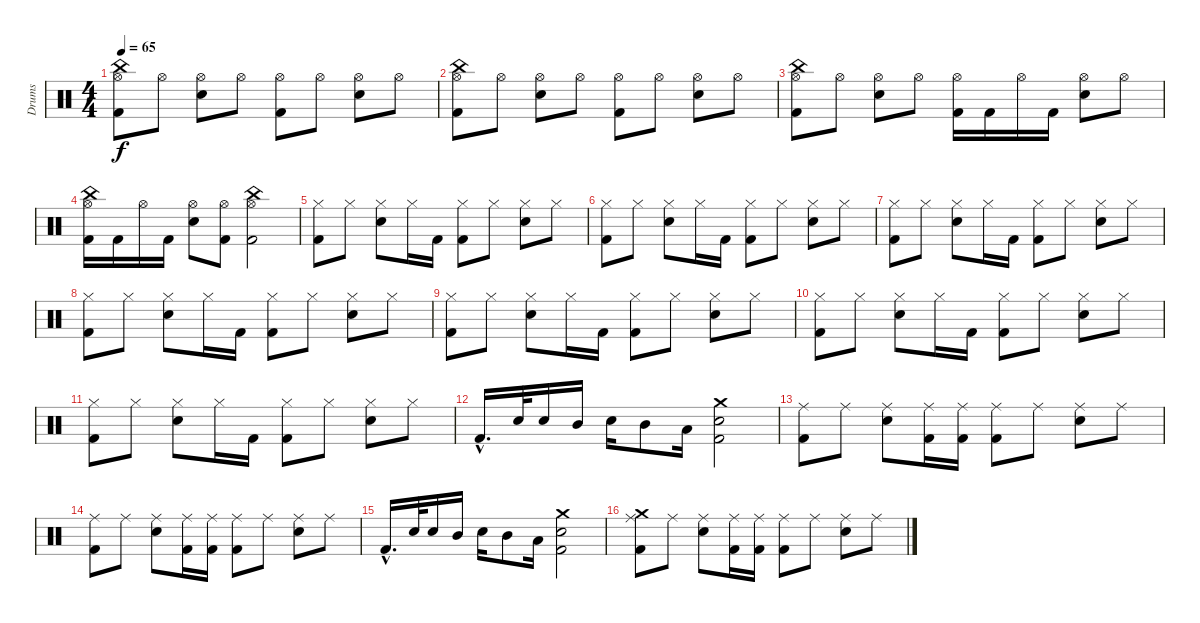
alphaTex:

\track ("Drums" "Drums") {instrument percussion}
\staff {score}
\articulation defaults
\ts (4 4)
\tempo 65
\clef neutral
\ks c
("Hi-Hat (open)" "China (hit)" "Kick (hit) 2").8{dy f} "Hi-Hat (open)".8 ("Hi-Hat (open)" "Snare (hit) 2").8 "Hi-Hat (open)".8 ("Hi-Hat (open)" "Kick (hit) 2").8 "Hi-Hat (open)".8 ("Hi-Hat (open)" "Snare (hit) 2").8 "Hi-Hat (open)".8 |
("Hi-Hat (open)" "China (hit)" "Kick (hit) 2").8 "Hi-Hat (open)".8 ("Hi-Hat (open)" "Snare (hit) 2").8 "Hi-Hat (open)".8 ("Hi-Hat (open)" "Kick (hit) 2").8 "Hi-Hat (open)".8 ("Hi-Hat (open)" "Snare (hit) 2").8 "Hi-Hat (open)".8 |
("Hi-Hat (open)" "China (hit)" "Kick (hit) 2").8 "Hi-Hat (open)".8 ("Hi-Hat (open)" "Snare (hit) 2").8 "Hi-Hat (open)".8 ("Hi-Hat (open)" "Kick (hit) 2").16 "Kick (hit) 2".16 "Hi-Hat (open)".16 "Kick (hit) 2".16 ("Hi-Hat (open)" "Snare (hit) 2").8 "Hi-Hat (open)".8 |
("Hi-Hat (open)" "China (hit)" "Kick (hit) 2").16 "Kick (hit) 2".16 "Hi-Hat (open)".16 "Kick (hit) 2".16 ("Hi-Hat (open)" "Snare (hit) 2").8 ("Hi-Hat (open)" "Kick (hit) 2").8 ("Hi-Hat (open)" "China (hit)" "Kick (hit) 2").2 |
("Hi-Hat (closed)" "Kick (hit) 2").8 "Hi-Hat (closed)".8 ("Hi-Hat (closed)" "Electric Snare (hit)").8 "Hi-Hat (closed)".16 "Kick (hit) 2".16 ("Hi-Hat (closed)" "Kick (hit) 2").8 "Hi-Hat (closed)".8 ("Hi-Hat (closed)" "Electric Snare (hit)").8 "Hi-Hat (closed)".8 |
("Hi-Hat (closed)" "Kick (hit) 2").8 "Hi-Hat (closed)".8 ("Hi-Hat (closed)" "Electric Snare (hit)").8 "Hi-Hat (closed)".16 "Kick (hit) 2".16 ("Hi-Hat (closed)" "Kick (hit) 2").8 "Hi-Hat (closed)".8 ("Hi-Hat (closed)" "Electric Snare (hit)").8 "Hi-Hat (closed)".8 |
("Hi-Hat (closed)" "Kick (hit) 2").8 "Hi-Hat (closed)".8 ("Hi-Hat (closed)" "Electric Snare (hit)").8 "Hi-Hat (closed)".16 "Kick (hit) 2".16 ("Hi-Hat (closed)" "Kick (hit) 2").8 "Hi-Hat (closed)".8 ("Hi-Hat (closed)" "Electric Snare (hit)").8 "Hi-Hat (closed)".8 |
("Hi-Hat (closed)" "Kick (hit) 2").8 "Hi-Hat (closed)".8 ("Hi-Hat (closed)" "Electric Snare (hit)").8 "Hi-Hat (closed)".16 "Kick (hit) 2".16 ("Hi-Hat (closed)" "Kick (hit) 2").8 "Hi-Hat (closed)".8 ("Hi-Hat (closed)" "Electric Snare (hit)").8 "Hi-Hat (closed)".8 |
("Hi-Hat (closed)" "Kick (hit) 2").8 "Hi-Hat (closed)".8 ("Hi-Hat (closed)" "Electric Snare (hit)").8 "Hi-Hat (closed)".16 "Kick (hit) 2".16 ("Hi-Hat (closed)" "Kick (hit) 2").8 "Hi-Hat (closed)".8 ("Hi-Hat (closed)" "Electric Snare (hit)").8 "Hi-Hat (closed)".8 |
("Hi-Hat (closed)" "Kick (hit) 2").8 "Hi-Hat (closed)".8 ("Hi-Hat (closed)" "Electric Snare (hit)").8 "Hi-Hat (closed)".16 "Kick (hit) 2".16 ("Hi-Hat (closed)" "Kick (hit) 2").8 "Hi-Hat (closed)".8 ("Hi-Hat (closed)" "Electric Snare (hit)").8 "Hi-Hat (closed)".8 |
("Hi-Hat (closed)" "Kick (hit) 2").8 "Hi-Hat (closed)".8 ("Hi-Hat (closed)" "Electric Snare (hit)").8 "Hi-Hat (closed)".16 "Kick (hit) 2".16 ("Hi-Hat (closed)" "Kick (hit) 2").8 "Hi-Hat (closed)".8 ("Hi-Hat (closed)" "Electric Snare (hit)").8 "Hi-Hat (closed)".8 |
"Kick (hit) 2"{hac}.16{d} "Electric Snare (hit)".32 "Electric Snare (hit)".16 "Mid Tom (hit)".16 "Electric Snare (hit)".16 "Mid Tom (hit)".8 "Low Tom (hit)".16 ("Crash medium (hit)" "Electric Snare (hit)" "Kick (hit) 2").2 |
("Ride (middle)" "Kick (hit) 2").8 "Ride (middle)".8 ("Ride (middle)" "Electric Snare (hit)").8 ("Ride (middle)" "Kick (hit) 2").16 ("Ride (middle)" "Kick (hit) 2").16 ("Ride (middle)" "Kick (hit) 2").8 "Ride (middle)".8 ("Ride (middle)" "Electric Snare (hit)").8 "Ride (middle)".8 |
("Ride (middle)" "Kick (hit) 2").8 "Ride (middle)".8 ("Ride (middle)" "Electric Snare (hit)").8 ("Ride (middle)" "Kick (hit) 2").16 ("Ride (middle)" "Kick (hit) 2").16 ("Ride (middle)" "Kick (hit) 2").8 "Ride (middle)".8 ("Ride (middle)" "Electric Snare (hit)").8 "Ride (middle)".8 |
"Kick (hit) 2"{hac}.16{d} "Electric Snare (hit)".32 "Electric Snare (hit)".16 "Mid Tom (hit)".16 "Electric Snare (hit)".16 "Mid Tom (hit)".8 "Low Tom (hit)".16 ("Crash medium (hit)" "Electric Snare (hit)" "Kick (hit) 2").2 |
("Crash medium (hit)" "Ride (middle)" "Kick (hit) 2").8 "Ride (middle)".8 ("Ride (middle)" "Electric Snare (hit)").8 ("Ride (middle)" "Kick (hit) 2").16 ("Ride (middle)" "Kick (hit) 2").16 ("Ride (middle)" "Kick (hit) 2").8 "Ride (middle)".8 ("Ride (middle)" "Electric Snare (hit)").8 "Ride (middle)".8
